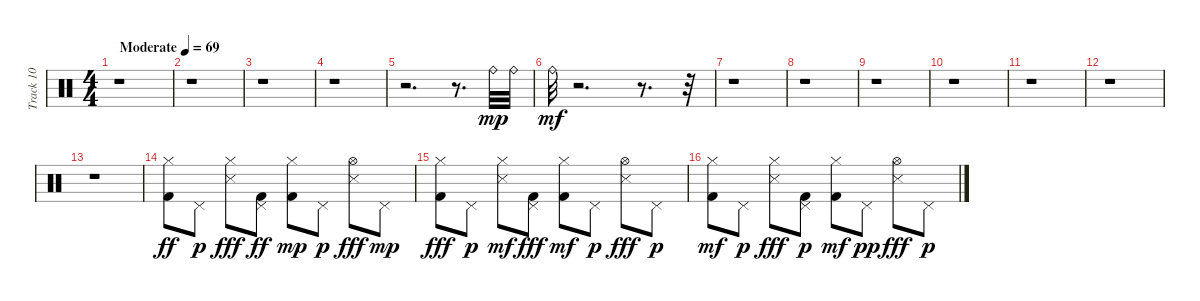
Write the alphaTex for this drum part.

\track ("Track 10" "Track 10") {instrument percussion}
\staff {score}
\articulation defaults
\ts (4 4)
\tempo (69 "Moderate")
\clef neutral
\ks c
r.1{dy mp} |
r.1 |
r.1 |
r.1 |
r.2{d} r.8{d} "Ride (bell)".32 "Ride (bell)".32 |
"Ride (bell)".32{dy mf} r.2{d} r.8{d} r.32 |
r.1 |
r.1 |
r.1 |
r.1 |
r.1 |
r.1 |
r.1 |
("Hi-Hat (closed)" "Kick (hit) 2").8{dy ff} "Pedal Hi-Hat (hit)".8{dy p} ("Hi-Hat (closed)" "Snare (side stick) 3").8{dy fff} ("Pedal Hi-Hat (hit)" "Kick (hit) 2").8{dy ff} ("Kick (hit) 2" "Hi-Hat (closed)").8{dy mp} "Pedal Hi-Hat (hit)".8{dy p} ("Hi-Hat (open)" "Snare (side stick) 3").8{dy fff} "Pedal Hi-Hat (hit)".8{dy mp} |
("Hi-Hat (closed)" "Kick (hit) 2").8{dy fff} "Pedal Hi-Hat (hit)".8{dy p} ("Snare (side stick) 3" "Hi-Hat (closed)").8{dy mf} ("Pedal Hi-Hat (hit)" "Kick (hit) 2").8{dy fff} ("Kick (hit) 2" "Hi-Hat (closed)").8{dy mf} "Pedal Hi-Hat (hit)".8{dy p} ("Hi-Hat (open)" "Snare (side stick) 3").8{dy fff} "Pedal Hi-Hat (hit)".8{dy p} |
("Kick (hit) 2" "Hi-Hat (closed)").8{dy mf} "Pedal Hi-Hat (hit)".8{dy p} ("Hi-Hat (closed)" "Snare (side stick) 3").8{dy fff} ("Kick (hit) 2" "Pedal Hi-Hat (hit)").8{dy p} ("Kick (hit) 2" "Hi-Hat (closed)").8{dy mf} "Pedal Hi-Hat (hit)".8{dy pp} ("Hi-Hat (open)" "Snare (side stick) 3").8{dy fff} "Pedal Hi-Hat (hit)".8{dy p}
